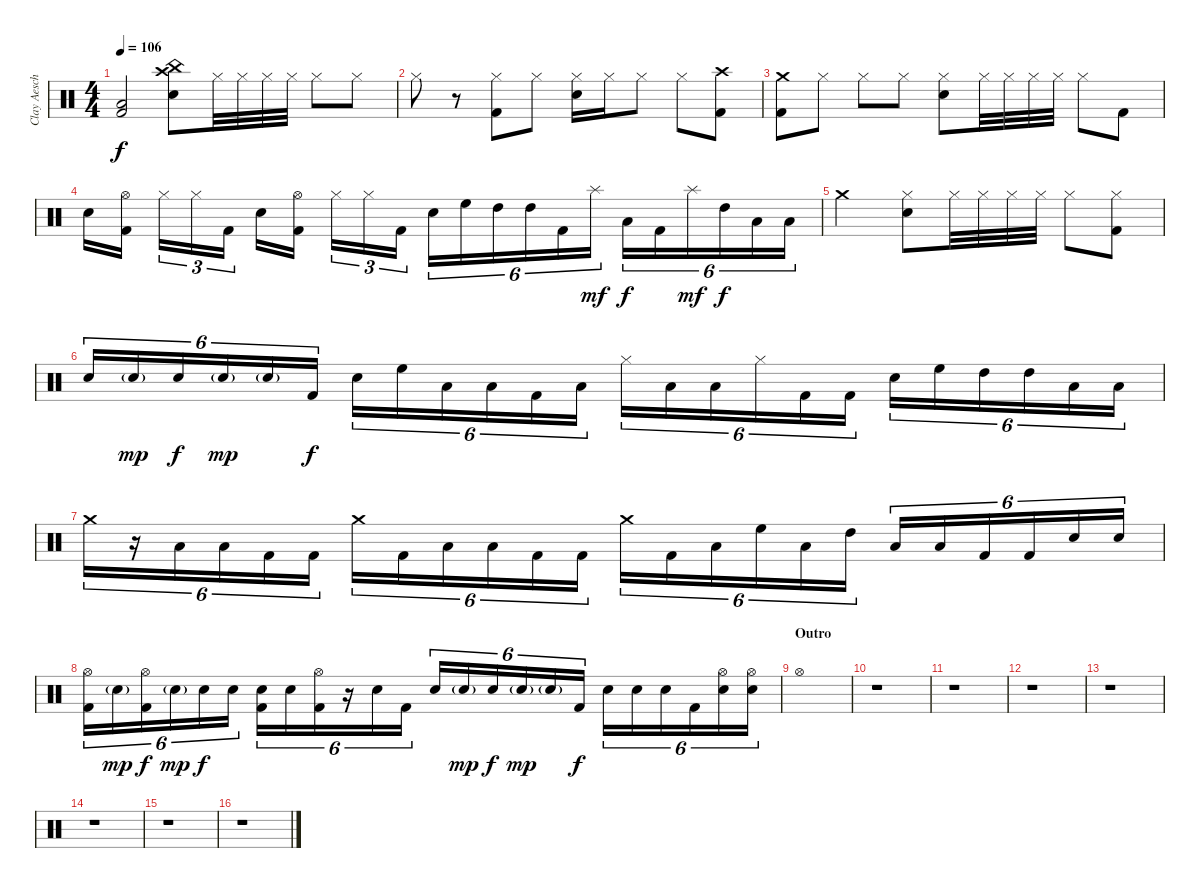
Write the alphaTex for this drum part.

\track ("Clay Aeschliman" "Clay Aesch") {instrument percussion}
\staff {score}
\articulation defaults
\ts (4 4)
\tempo 106
\clef neutral
\ks c
("Low Floor Tom (hit)" "Kick (hit) 2").2{dy f} ("Crash high (hit)" "China (hit)" "Snare (hit) 2").8 "Hi-Hat (closed)".32 "Hi-Hat (closed)".32 "Hi-Hat (closed)".32 "Hi-Hat (closed)".32 "Hi-Hat (closed)".8 "Hi-Hat (closed)".8 |
"Hi-Hat (closed)".8 r.8 ("Hi-Hat (closed)" "Kick (hit) 2").8 "Hi-Hat (closed)".8 ("Hi-Hat (closed)" "Snare (hit) 2").16 "Hi-Hat (closed)".16 "Hi-Hat (closed)".8 "Hi-Hat (closed)".8 ("Crash high (hit)" "Kick (hit) 2").8 |
("Crash medium (hit)" "Kick (hit) 2").8 "Hi-Hat (closed)".8 "Hi-Hat (closed)".8 "Hi-Hat (closed)".8 ("Hi-Hat (closed)" "Snare (hit) 2").8 "Hi-Hat (closed)".32 "Hi-Hat (closed)".32 "Hi-Hat (closed)".32 "Hi-Hat (closed)".32 "Hi-Hat (closed)".8 "Kick (hit) 2".8 |
"Snare (hit) 2".16 ("Hi-Hat (open)" "Kick (hit) 2").16 "Hi-Hat (closed)".16{tu (3 2)} "Hi-Hat (closed)".16{tu (3 2)} "Kick (hit) 2".16{tu (3 2)} "Snare (hit) 2".16 ("Hi-Hat (open)" "Kick (hit) 2").16 "Hi-Hat (closed)".16{tu (3 2)} "Hi-Hat (closed)".16{tu (3 2)} "Kick (hit) 2".16{tu (3 2)} "Snare (hit) 2".16{tu (6 4)} "High Floor Tom (hit)".16{tu (6 4)} "High Tom (hit)".16{tu (6 4)} "High Tom (hit)".16{tu (6 4)} "Kick (hit) 2".16{tu (6 4)} "Splash (hit)".16{tu (6 4) dy mf} "Low Tom (hit)".16{tu (6 4) dy f} "Kick (hit) 2".16{tu (6 4)} "Splash (hit)".16{tu (6 4) dy mf} "High Tom (hit)".16{tu (6 4) dy f} "Low Tom (hit)".16{tu (6 4)} "Low Tom (hit)".16{tu (6 4)} |
"Crash medium (hit)".2 ("Hi-Hat (closed)" "Snare (hit) 2").8 "Hi-Hat (closed)".32 "Hi-Hat (closed)".32 "Hi-Hat (closed)".32 "Hi-Hat (closed)".32 "Hi-Hat (closed)".8 ("Hi-Hat (closed)" "Kick (hit) 2").8 |
"Snare (hit) 2".16{tu (6 4)} "Snare (hit) 2"{g}.16{tu (6 4) dy mp} "Snare (hit) 2".16{tu (6 4) dy f} "Snare (hit) 2"{g}.16{tu (6 4) dy mp} "Snare (hit) 2"{g}.16{tu (6 4)} "Kick (hit) 2".16{tu (6 4) dy f} "Snare (hit) 2".16{tu (6 4)} "High Floor Tom (hit)".16{tu (6 4)} "Low Tom (hit)".16{tu (6 4)} "Low Tom (hit)".16{tu (6 4)} "Kick (hit) 2".16{tu (6 4)} "Low Tom (hit)".16{tu (6 4)} "Hi-Hat (closed)".16{tu (6 4)} "Low Tom (hit)".16{tu (6 4)} "Low Tom (hit)".16{tu (6 4)} "Hi-Hat (closed)".16{tu (6 4)} "Kick (hit) 2".16{tu (6 4)} "Kick (hit) 2".16{tu (6 4)} "Snare (hit) 2".16{tu (6 4)} "High Floor Tom (hit)".16{tu (6 4)} "High Tom (hit)".16{tu (6 4)} "High Tom (hit)".16{tu (6 4)} "Low Tom (hit)".16{tu (6 4)} "Low Tom (hit)".16{tu (6 4)} |
"Crash medium (hit)".16{tu (6 4)} r.16{tu (6 4)} "Low Tom (hit)".16{tu (6 4)} "Low Tom (hit)".16{tu (6 4)} "Kick (hit) 2".16{tu (6 4)} "Kick (hit) 2".16{tu (6 4)} "Crash medium (hit)".16{tu (6 4)} "Kick (hit) 2".16{tu (6 4)} "Low Tom (hit)".16{tu (6 4)} "Low Tom (hit)".16{tu (6 4)} "Kick (hit) 2".16{tu (6 4)} "Kick (hit) 2".16{tu (6 4)} "Crash medium (hit)".16{tu (6 4)} "Kick (hit) 2".16{tu (6 4)} "Low Tom (hit)".16{tu (6 4)} "High Floor Tom (hit)".16{tu (6 4)} "Low Tom (hit)".16{tu (6 4)} "High Tom (hit)".16{tu (6 4)} "Low Tom (hit)".16{tu (6 4)} "Low Tom (hit)".16{tu (6 4)} "Kick (hit) 2".16{tu (6 4)} "Kick (hit) 2".16{tu (6 4)} "Snare (hit) 2".16{tu (6 4)} "Snare (hit) 2".16{tu (6 4)} |
("Hi-Hat (open)" "Kick (hit) 2").16{tu (6 4)} "Snare (hit) 2"{g}.16{tu (6 4) dy mp} ("Hi-Hat (open)" "Kick (hit) 2").16{tu (6 4) dy f} "Snare (hit) 2"{g}.16{tu (6 4) dy mp} "Snare (hit) 2".16{tu (6 4) dy f} "Snare (hit) 2".16{tu (6 4)} ("Snare (hit) 2" "Kick (hit) 2").16{tu (6 4)} "Snare (hit) 2".16{tu (6 4)} ("Hi-Hat (open)" "Kick (hit) 2").16{tu (6 4)} r.16{tu (6 4)} "Snare (hit) 2".16{tu (6 4)} "Kick (hit) 2".16{tu (6 4)} "Snare (hit) 2".16{tu (6 4)} "Snare (hit) 2"{g}.16{tu (6 4) dy mp} "Snare (hit) 2".16{tu (6 4) dy f} "Snare (hit) 2"{g}.16{tu (6 4) dy mp} "Snare (hit) 2"{g}.16{tu (6 4)} "Kick (hit) 2".16{tu (6 4) dy f} "Snare (hit) 2".16{tu (6 4)} "Snare (hit) 2".16{tu (6 4)} "Snare (hit) 2".16{tu (6 4)} "Kick (hit) 2".16{tu (6 4)} ("Hi-Hat (open)" "Snare (hit) 2").16{tu (6 4)} ("Hi-Hat (open)" "Snare (hit) 2").16{tu (6 4)} |
\section ("" "Outro")
"Hi-Hat (open)".1 |
r.1 |
r.1 |
r.1 |
r.1 |
r.1 |
r.1 |
r.1
